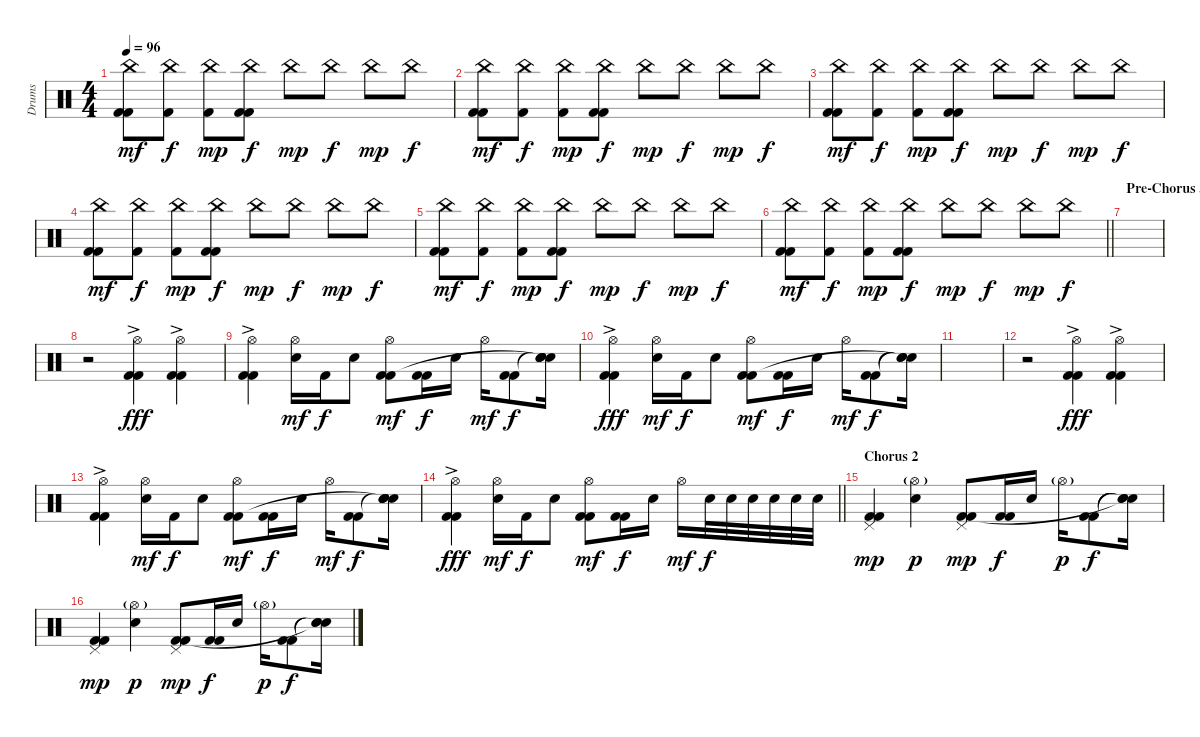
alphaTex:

\track ("Drums" "Drums") {instrument percussion}
\staff {score}
\articulation defaults
\ts (4 4)
\tempo 96
\clef neutral
\ks c
("China (hit)" "Kick (hit) 2" "Kick (hit) 2").8{dy mf} ("China (hit)" "Kick (hit) 2").8{dy f} ("China (hit)" "Kick (hit) 2").8{dy mp} ("China (hit)" "Kick (hit) 2" "Kick (hit) 2").8{dy f} "China (hit)".8{dy mp} "China (hit)".8{dy f} "China (hit)".8{dy mp} "China (hit)".8{dy f} |
("China (hit)" "Kick (hit) 2" "Kick (hit) 2").8{dy mf} ("China (hit)" "Kick (hit) 2").8{dy f} ("China (hit)" "Kick (hit) 2").8{dy mp} ("China (hit)" "Kick (hit) 2" "Kick (hit) 2").8{dy f} "China (hit)".8{dy mp} "China (hit)".8{dy f} "China (hit)".8{dy mp} "China (hit)".8{dy f} |
("China (hit)" "Kick (hit) 2" "Kick (hit) 2").8{dy mf} ("China (hit)" "Kick (hit) 2").8{dy f} ("China (hit)" "Kick (hit) 2").8{dy mp} ("China (hit)" "Kick (hit) 2" "Kick (hit) 2").8{dy f} "China (hit)".8{dy mp} "China (hit)".8{dy f} "China (hit)".8{dy mp} "China (hit)".8{dy f} |
("China (hit)" "Kick (hit) 2" "Kick (hit) 2").8{dy mf} ("China (hit)" "Kick (hit) 2").8{dy f} ("China (hit)" "Kick (hit) 2").8{dy mp} ("China (hit)" "Kick (hit) 2" "Kick (hit) 2").8{dy f} "China (hit)".8{dy mp} "China (hit)".8{dy f} "China (hit)".8{dy mp} "China (hit)".8{dy f} |
("China (hit)" "Kick (hit) 2" "Kick (hit) 2").8{dy mf} ("China (hit)" "Kick (hit) 2").8{dy f} ("China (hit)" "Kick (hit) 2").8{dy mp} ("China (hit)" "Kick (hit) 2" "Kick (hit) 2").8{dy f} "China (hit)".8{dy mp} "China (hit)".8{dy f} "China (hit)".8{dy mp} "China (hit)".8{dy f} |
\barLineRight lightlight
("China (hit)" "Kick (hit) 2" "Kick (hit) 2").8{dy mf} ("China (hit)" "Kick (hit) 2").8{dy f} ("China (hit)" "Kick (hit) 2").8{dy mp} ("China (hit)" "Kick (hit) 2" "Kick (hit) 2").8{dy f} "China (hit)".8{dy mp} "China (hit)".8{dy f} "China (hit)".8{dy mp} "China (hit)".8{dy f} |
\section ("" "Pre-Chorus 3")
|
r.2{volume 16} ("Hi-Hat (open)"{ac} "Kick (hit) 2" "Kick (hit) 2").4{dy fff} ("Hi-Hat (open)"{ac} "Kick (hit) 2" "Kick (hit) 2").4 |
("Hi-Hat (open)"{ac} "Kick (hit) 2" "Kick (hit) 2").4 ("Hi-Hat (open)" "Snare (hit) 2").16{dy mf} "Kick (hit) 2".16{dy f} "Snare (hit) 2".8 ("Hi-Hat (open)" "Kick (hit) 2" "Kick (hit) 2").8{dy mf} ("Kick (hit) 2" "Kick (hit) 2").16{dy f} "Snare (hit) 2".16 "Hi-Hat (open)".16{dy mf} ("Kick (hit) 2" "Kick (hit) 2").8{dy f} ("Snare (hit)"{t} "Snare (hit) 2" "Snare (hit)"{t} "Snare (hit)").16 |
("Hi-Hat (open)"{ac} "Kick (hit) 2" "Kick (hit) 2").4{dy fff} ("Hi-Hat (open)" "Snare (hit) 2").16{dy mf} "Kick (hit) 2".16{dy f} "Snare (hit) 2".8 ("Hi-Hat (open)" "Kick (hit) 2" "Kick (hit) 2").8{dy mf} ("Kick (hit) 2" "Kick (hit) 2").16{dy f} "Snare (hit) 2".16 "Hi-Hat (open)".16{dy mf} ("Kick (hit) 2" "Kick (hit) 2").8{dy f} ("Snare (hit)"{t} "Snare (hit)"{t} "Snare (hit)"{t}).16 |
|
r.2{volume 16} ("Hi-Hat (open)"{ac} "Kick (hit) 2" "Kick (hit) 2").4{dy fff} ("Hi-Hat (open)"{ac} "Kick (hit) 2" "Kick (hit) 2").4 |
("Hi-Hat (open)"{ac} "Kick (hit) 2" "Kick (hit) 2").4 ("Hi-Hat (open)" "Snare (hit) 2").16{dy mf} "Kick (hit) 2".16{dy f} "Snare (hit) 2".8 ("Hi-Hat (open)" "Kick (hit) 2" "Kick (hit) 2").8{dy mf} ("Kick (hit) 2" "Kick (hit) 2").16{dy f} "Snare (hit) 2".16 "Hi-Hat (open)".16{dy mf} ("Kick (hit) 2" "Kick (hit) 2").8{dy f} ("Snare (hit)"{t} "Snare (hit) 2" "Snare (hit)"{t} "Snare (hit)").16 |
\barLineRight lightlight
("Hi-Hat (open)"{ac} "Kick (hit) 2" "Kick (hit) 2").4{dy fff} ("Hi-Hat (open)" "Snare (hit) 2").16{dy mf} "Kick (hit) 2".16{dy f} "Snare (hit) 2".8 ("Hi-Hat (open)" "Kick (hit) 2" "Kick (hit) 2").8{dy mf} ("Kick (hit) 2" "Kick (hit) 2").16{dy f} "Snare (hit) 2".16 "Hi-Hat (open)".16{dy mf} "Snare (hit) 2".32{dy f} "Snare (hit) 2".32 "Snare (hit) 2".32 "Snare (hit) 2".32 "Snare (hit) 2".32 "Snare (hit) 2".32 |
\section ("" "Chorus 2")
("Pedal Hi-Hat (hit)" "Kick (hit) 2" "Kick (hit) 2").4{dy mp} ("Hi-Hat (open)"{g} "Snare (hit) 2").4{dy p} ("Pedal Hi-Hat (hit)" "Kick (hit) 2" "Kick (hit) 2").8{dy mp} ("Kick (hit) 2" "Kick (hit) 2").16{dy f} "Snare (hit) 2".16 "Hi-Hat (open)"{g}.16{dy p} ("Kick (hit) 2" "Kick (hit) 2").8{dy f} ("Snare (hit)"{t} "Snare (hit)"{t} "Snare (hit)"{t}).16 |
("Pedal Hi-Hat (hit)" "Kick (hit) 2" "Kick (hit) 2").4{dy mp} ("Hi-Hat (open)"{g} "Snare (hit) 2").4{dy p} ("Pedal Hi-Hat (hit)" "Kick (hit) 2" "Kick (hit) 2").8{dy mp} ("Kick (hit) 2" "Kick (hit) 2").16{dy f} "Snare (hit) 2".16 "Hi-Hat (open)"{g}.16{dy p} ("Kick (hit) 2" "Kick (hit) 2").8{dy f} ("Snare (hit)"{t} "Snare (hit)"{t} "Snare (hit)"{t}).16
